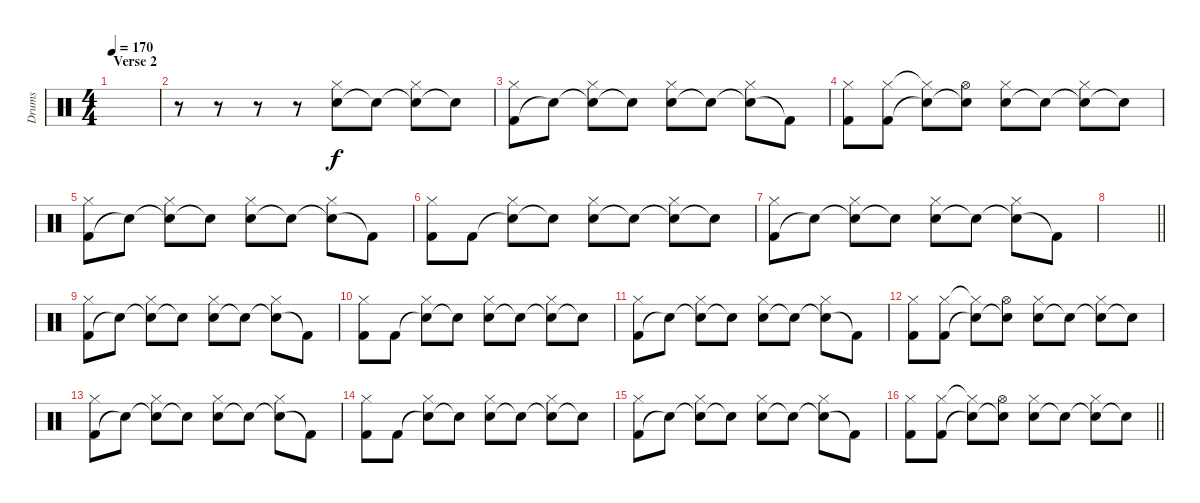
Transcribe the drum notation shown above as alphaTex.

\track ("Drums" "Drums") {instrument percussion}
\staff {score}
\articulation defaults
\ts (4 4)
\section ("" "Verse 2")
\tempo 170
\clef neutral
\ks c
|
r.8 r.8 r.8 r.8 ("Electric Snare (hit)" "Hi-Hat (closed)").8 "Snare (hit)"{t}.8 ("Snare (hit)"{t} "Hi-Hat (closed)").8 "Snare (hit)"{t}.8 |
("Kick (hit) 2" "Hi-Hat (closed)").8 "Snare (hit)"{t}.8 ("Electric Snare (hit)"{t} "Hi-Hat (closed)").8 "Electric Snare (hit)"{t}.8 ("Electric Snare (hit)" "Hi-Hat (closed)").8 "Snare (hit)"{t}.8 ("Snare (hit)"{t} "Hi-Hat (closed)").8 "Kick (hit) 2"{t}.8 |
("Kick (hit) 2" "Hi-Hat (closed)").8 ("Kick (hit) 2" "Hi-Hat (closed)").8 ("Snare (hit)"{t} "Hi-Hat (closed)"{t}).8 ("Snare (hit)"{t} "Hi-Hat (open)").8 ("Electric Snare (hit)" "Hi-Hat (closed)").8 "Snare (hit)"{t}.8 ("Snare (hit)"{t} "Hi-Hat (closed)").8 "Snare (hit)"{t}.8 |
("Kick (hit) 2" "Hi-Hat (closed)").8 "Snare (hit)"{t}.8 ("Electric Snare (hit)"{t} "Hi-Hat (closed)").8 "Electric Snare (hit)"{t}.8 ("Electric Snare (hit)" "Hi-Hat (closed)").8 "Snare (hit)"{t}.8 ("Snare (hit)"{t} "Hi-Hat (closed)").8 "Kick (hit) 2"{t}.8 |
("Kick (hit) 2" "Hi-Hat (closed)").8 "Kick (hit) 2".8 ("Snare (hit)"{t} "Hi-Hat (closed)").8 "Snare (hit)"{t}.8 ("Electric Snare (hit)" "Hi-Hat (closed)").8 "Snare (hit)"{t}.8 ("Snare (hit)"{t} "Hi-Hat (closed)").8 "Snare (hit)"{t}.8 |
("Kick (hit) 2" "Hi-Hat (closed)").8 "Snare (hit)"{t}.8 ("Electric Snare (hit)"{t} "Hi-Hat (closed)").8 "Electric Snare (hit)"{t}.8 ("Electric Snare (hit)" "Hi-Hat (closed)").8 "Snare (hit)"{t}.8 ("Snare (hit)"{t} "Hi-Hat (closed)").8 "Kick (hit) 2"{t}.8 |
\barLineRight lightlight
|
("Kick (hit) 2" "Hi-Hat (closed)").8 "Snare (hit)"{t}.8 ("Electric Snare (hit)"{t} "Hi-Hat (closed)").8 "Electric Snare (hit)"{t}.8 ("Electric Snare (hit)" "Hi-Hat (closed)").8 "Snare (hit)"{t}.8 ("Snare (hit)"{t} "Hi-Hat (closed)").8 "Kick (hit) 2"{t}.8 |
("Kick (hit) 2" "Hi-Hat (closed)").8 "Kick (hit) 2".8 ("Snare (hit)"{t} "Hi-Hat (closed)").8 "Snare (hit)"{t}.8 ("Electric Snare (hit)" "Hi-Hat (closed)").8 "Snare (hit)"{t}.8 ("Snare (hit)"{t} "Hi-Hat (closed)").8 "Snare (hit)"{t}.8 |
("Kick (hit) 2" "Hi-Hat (closed)").8 "Snare (hit)"{t}.8 ("Electric Snare (hit)"{t} "Hi-Hat (closed)").8 "Electric Snare (hit)"{t}.8 ("Electric Snare (hit)" "Hi-Hat (closed)").8 "Snare (hit)"{t}.8 ("Snare (hit)"{t} "Hi-Hat (closed)").8 "Kick (hit) 2"{t}.8 |
("Kick (hit) 2" "Hi-Hat (closed)").8 ("Kick (hit) 2" "Hi-Hat (closed)").8 ("Snare (hit)"{t} "Hi-Hat (closed)"{t}).8 ("Snare (hit)"{t} "Hi-Hat (open)").8 ("Electric Snare (hit)" "Hi-Hat (closed)").8 "Snare (hit)"{t}.8 ("Snare (hit)"{t} "Hi-Hat (closed)").8 "Snare (hit)"{t}.8 |
("Kick (hit) 2" "Hi-Hat (closed)").8 "Snare (hit)"{t}.8 ("Electric Snare (hit)"{t} "Hi-Hat (closed)").8 "Electric Snare (hit)"{t}.8 ("Electric Snare (hit)" "Hi-Hat (closed)").8 "Snare (hit)"{t}.8 ("Snare (hit)"{t} "Hi-Hat (closed)").8 "Kick (hit) 2"{t}.8 |
("Kick (hit) 2" "Hi-Hat (closed)").8 "Kick (hit) 2".8 ("Snare (hit)"{t} "Hi-Hat (closed)").8 "Snare (hit)"{t}.8 ("Electric Snare (hit)" "Hi-Hat (closed)").8 "Snare (hit)"{t}.8 ("Snare (hit)"{t} "Hi-Hat (closed)").8 "Snare (hit)"{t}.8 |
("Kick (hit) 2" "Hi-Hat (closed)").8 "Snare (hit)"{t}.8 ("Electric Snare (hit)"{t} "Hi-Hat (closed)").8 "Electric Snare (hit)"{t}.8 ("Electric Snare (hit)" "Hi-Hat (closed)").8 "Snare (hit)"{t}.8 ("Snare (hit)"{t} "Hi-Hat (closed)").8 "Kick (hit) 2"{t}.8 |
\barLineRight lightlight
("Kick (hit) 2" "Hi-Hat (closed)").8 ("Kick (hit) 2" "Hi-Hat (closed)").8 ("Snare (hit)"{t} "Hi-Hat (closed)"{t}).8 ("Snare (hit)"{t} "Hi-Hat (open)").8 ("Electric Snare (hit)" "Hi-Hat (closed)").8 "Snare (hit)"{t}.8 ("Snare (hit)"{t} "Hi-Hat (closed)").8 "Snare (hit)"{t}.8
